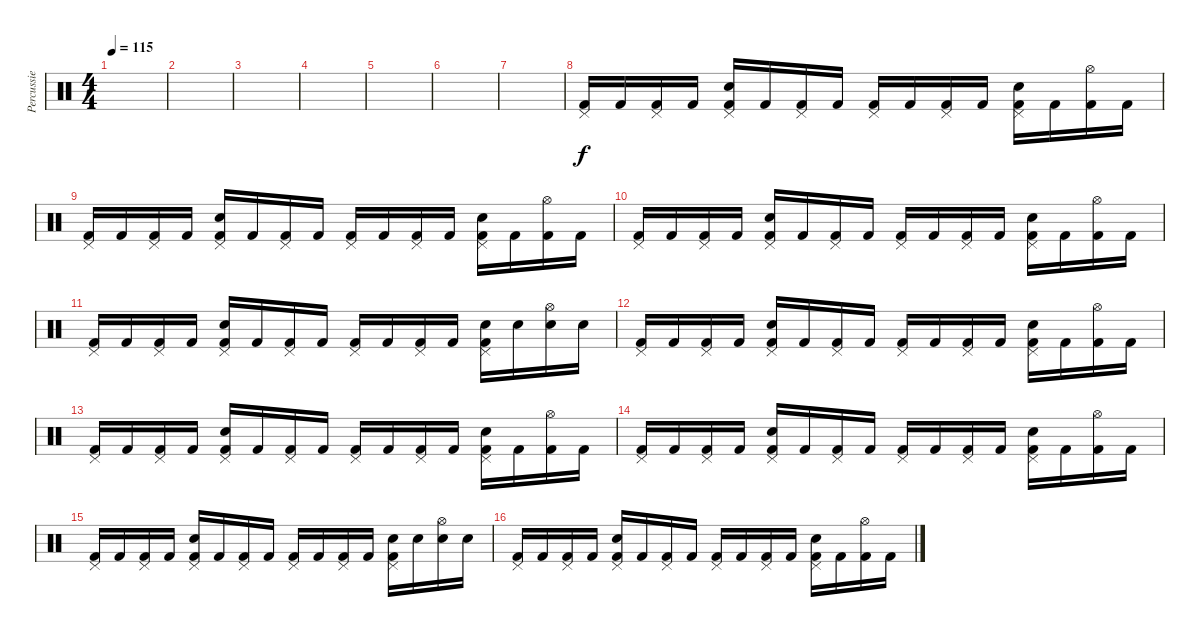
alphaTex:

\track ("Percussie" "Percussie") {instrument percussion}
\staff {score}
\articulation defaults
\ts (4 4)
\tempo 115
\clef neutral
\ks c
|
|
|
|
|
|
|
("Pedal Hi-Hat (hit)" "Kick (hit) 2").16 "Kick (hit) 2".16 ("Pedal Hi-Hat (hit)" "Kick (hit) 2").16 "Kick (hit) 2".16 ("Pedal Hi-Hat (hit)" "Kick (hit) 2" "Snare (hit) 2").16 "Kick (hit) 2".16 ("Pedal Hi-Hat (hit)" "Kick (hit) 2").16 "Kick (hit) 2".16 ("Pedal Hi-Hat (hit)" "Kick (hit) 2").16 "Kick (hit) 2".16 ("Pedal Hi-Hat (hit)" "Kick (hit) 2").16 "Kick (hit) 2".16 ("Pedal Hi-Hat (hit)" "Kick (hit) 2" "Snare (hit) 2").16 "Kick (hit) 2".16 ("Hi-Hat (open)" "Kick (hit) 2").16 "Kick (hit) 2".16 |
("Pedal Hi-Hat (hit)" "Kick (hit) 2").16 "Kick (hit) 2".16 ("Pedal Hi-Hat (hit)" "Kick (hit) 2").16 "Kick (hit) 2".16 ("Pedal Hi-Hat (hit)" "Kick (hit) 2" "Snare (hit) 2").16 "Kick (hit) 2".16 ("Pedal Hi-Hat (hit)" "Kick (hit) 2").16 "Kick (hit) 2".16 ("Pedal Hi-Hat (hit)" "Kick (hit) 2").16 "Kick (hit) 2".16 ("Pedal Hi-Hat (hit)" "Kick (hit) 2").16 "Kick (hit) 2".16 ("Pedal Hi-Hat (hit)" "Kick (hit) 2" "Snare (hit) 2").16 "Kick (hit) 2".16 ("Hi-Hat (open)" "Kick (hit) 2").16 "Kick (hit) 2".16 |
("Pedal Hi-Hat (hit)" "Kick (hit) 2").16 "Kick (hit) 2".16 ("Pedal Hi-Hat (hit)" "Kick (hit) 2").16 "Kick (hit) 2".16 ("Pedal Hi-Hat (hit)" "Kick (hit) 2" "Snare (hit) 2").16 "Kick (hit) 2".16 ("Pedal Hi-Hat (hit)" "Kick (hit) 2").16 "Kick (hit) 2".16 ("Pedal Hi-Hat (hit)" "Kick (hit) 2").16 "Kick (hit) 2".16 ("Pedal Hi-Hat (hit)" "Kick (hit) 2").16 "Kick (hit) 2".16 ("Pedal Hi-Hat (hit)" "Kick (hit) 2" "Snare (hit) 2").16 "Kick (hit) 2".16 ("Hi-Hat (open)" "Kick (hit) 2").16 "Kick (hit) 2".16 |
("Pedal Hi-Hat (hit)" "Kick (hit) 2").16 "Kick (hit) 2".16 ("Pedal Hi-Hat (hit)" "Kick (hit) 2").16 "Kick (hit) 2".16 ("Pedal Hi-Hat (hit)" "Kick (hit) 2" "Snare (hit) 2").16 "Kick (hit) 2".16 ("Pedal Hi-Hat (hit)" "Kick (hit) 2").16 "Kick (hit) 2".16 ("Pedal Hi-Hat (hit)" "Kick (hit) 2").16 "Kick (hit) 2".16 ("Pedal Hi-Hat (hit)" "Kick (hit) 2").16 "Kick (hit) 2".16 ("Pedal Hi-Hat (hit)" "Kick (hit) 2" "Snare (hit) 2").16 "Snare (hit) 2".16 ("Hi-Hat (open)" "Snare (hit) 2").16 "Snare (hit) 2".16 |
("Pedal Hi-Hat (hit)" "Kick (hit) 2").16 "Kick (hit) 2".16 ("Pedal Hi-Hat (hit)" "Kick (hit) 2").16 "Kick (hit) 2".16 ("Pedal Hi-Hat (hit)" "Kick (hit) 2" "Snare (hit) 2").16 "Kick (hit) 2".16 ("Pedal Hi-Hat (hit)" "Kick (hit) 2").16 "Kick (hit) 2".16 ("Pedal Hi-Hat (hit)" "Kick (hit) 2").16 "Kick (hit) 2".16 ("Pedal Hi-Hat (hit)" "Kick (hit) 2").16 "Kick (hit) 2".16 ("Pedal Hi-Hat (hit)" "Kick (hit) 2" "Snare (hit) 2").16 "Kick (hit) 2".16 ("Hi-Hat (open)" "Kick (hit) 2").16 "Kick (hit) 2".16 |
("Pedal Hi-Hat (hit)" "Kick (hit) 2").16 "Kick (hit) 2".16 ("Pedal Hi-Hat (hit)" "Kick (hit) 2").16 "Kick (hit) 2".16 ("Pedal Hi-Hat (hit)" "Kick (hit) 2" "Snare (hit) 2").16 "Kick (hit) 2".16 ("Pedal Hi-Hat (hit)" "Kick (hit) 2").16 "Kick (hit) 2".16 ("Pedal Hi-Hat (hit)" "Kick (hit) 2").16 "Kick (hit) 2".16 ("Pedal Hi-Hat (hit)" "Kick (hit) 2").16 "Kick (hit) 2".16 ("Pedal Hi-Hat (hit)" "Kick (hit) 2" "Snare (hit) 2").16 "Kick (hit) 2".16 ("Hi-Hat (open)" "Kick (hit) 2").16 "Kick (hit) 2".16 |
("Pedal Hi-Hat (hit)" "Kick (hit) 2").16 "Kick (hit) 2".16 ("Pedal Hi-Hat (hit)" "Kick (hit) 2").16 "Kick (hit) 2".16 ("Pedal Hi-Hat (hit)" "Kick (hit) 2" "Snare (hit) 2").16 "Kick (hit) 2".16 ("Pedal Hi-Hat (hit)" "Kick (hit) 2").16 "Kick (hit) 2".16 ("Pedal Hi-Hat (hit)" "Kick (hit) 2").16 "Kick (hit) 2".16 ("Pedal Hi-Hat (hit)" "Kick (hit) 2").16 "Kick (hit) 2".16 ("Pedal Hi-Hat (hit)" "Kick (hit) 2" "Snare (hit) 2").16 "Kick (hit) 2".16 ("Hi-Hat (open)" "Kick (hit) 2").16 "Kick (hit) 2".16 |
("Pedal Hi-Hat (hit)" "Kick (hit) 2").16 "Kick (hit) 2".16 ("Pedal Hi-Hat (hit)" "Kick (hit) 2").16 "Kick (hit) 2".16 ("Pedal Hi-Hat (hit)" "Kick (hit) 2" "Snare (hit) 2").16 "Kick (hit) 2".16 ("Pedal Hi-Hat (hit)" "Kick (hit) 2").16 "Kick (hit) 2".16 ("Pedal Hi-Hat (hit)" "Kick (hit) 2").16 "Kick (hit) 2".16 ("Pedal Hi-Hat (hit)" "Kick (hit) 2").16 "Kick (hit) 2".16 ("Pedal Hi-Hat (hit)" "Kick (hit) 2" "Snare (hit) 2").16 "Snare (hit) 2".16 ("Hi-Hat (open)" "Snare (hit) 2").16 "Snare (hit) 2".16 |
("Pedal Hi-Hat (hit)" "Kick (hit) 2").16 "Kick (hit) 2".16 ("Pedal Hi-Hat (hit)" "Kick (hit) 2").16 "Kick (hit) 2".16 ("Pedal Hi-Hat (hit)" "Kick (hit) 2" "Snare (hit) 2").16 "Kick (hit) 2".16 ("Pedal Hi-Hat (hit)" "Kick (hit) 2").16 "Kick (hit) 2".16 ("Pedal Hi-Hat (hit)" "Kick (hit) 2").16 "Kick (hit) 2".16 ("Pedal Hi-Hat (hit)" "Kick (hit) 2").16 "Kick (hit) 2".16 ("Pedal Hi-Hat (hit)" "Kick (hit) 2" "Snare (hit) 2").16 "Kick (hit) 2".16 ("Hi-Hat (open)" "Kick (hit) 2").16 "Kick (hit) 2".16
